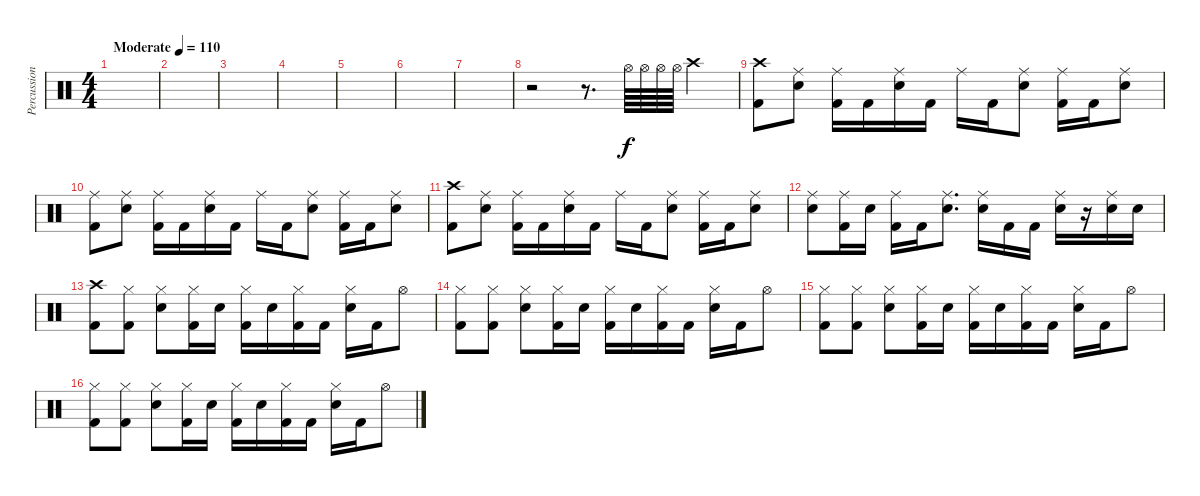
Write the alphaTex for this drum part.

\track ("Percussioni" "Percussion") {instrument percussion}
\staff {score}
\articulation defaults
\ts (4 4)
\tempo (110 "Moderate")
\clef neutral
\ks c
|
|
|
|
|
|
|
r.2 r.8{d} "Hi-Hat (open)".64 "Hi-Hat (open)".64 "Hi-Hat (open)".64 "Hi-Hat (open)".64 "Crash high (hit)".4 |
("Crash high (hit)" "Kick (hit) 2").8 ("Ride (middle)" "Snare (hit) 2").8 ("Ride (middle)" "Kick (hit) 2").16 "Kick (hit) 2".16 ("Ride (middle)" "Snare (hit) 2").16 "Kick (hit) 2".16 "Ride (middle)".16 "Kick (hit) 2".16 ("Ride (middle)" "Snare (hit) 2").8 ("Ride (middle)" "Kick (hit) 2").16 "Kick (hit) 2".16 ("Ride (middle)" "Snare (hit) 2").8 |
("Ride (middle)" "Kick (hit) 2").8 ("Ride (middle)" "Snare (hit) 2").8 ("Ride (middle)" "Kick (hit) 2").16 "Kick (hit) 2".16 ("Ride (middle)" "Snare (hit) 2").16 "Kick (hit) 2".16 "Ride (middle)".16 "Kick (hit) 2".16 ("Ride (middle)" "Snare (hit) 2").8 ("Ride (middle)" "Kick (hit) 2").16 "Kick (hit) 2".16 ("Ride (middle)" "Snare (hit) 2").8 |
("Crash high (hit)" "Kick (hit) 2").8 ("Ride (middle)" "Snare (hit) 2").8 ("Ride (middle)" "Kick (hit) 2").16 "Kick (hit) 2".16 ("Ride (middle)" "Snare (hit) 2").16 "Kick (hit) 2".16 "Ride (middle)".16 "Kick (hit) 2".16 ("Ride (middle)" "Snare (hit) 2").8 ("Ride (middle)" "Kick (hit) 2").16 "Kick (hit) 2".16 ("Ride (middle)" "Snare (hit) 2").8 |
("Ride (middle)" "Snare (hit) 2").8 ("Ride (middle)" "Kick (hit) 2").16 "Snare (hit) 2".16 ("Ride (middle)" "Kick (hit) 2").16 "Kick (hit) 2".16 ("Ride (middle)" "Snare (hit) 2").8{d} ("Ride (middle)" "Snare (hit) 2").16 "Kick (hit) 2".16 "Kick (hit) 2".16 ("Ride (middle)" "Snare (hit) 2").16 r.16 ("Ride (middle)" "Snare (hit) 2").16 "Snare (hit) 2".16 |
("Crash high (hit)" "Kick (hit) 2").8 ("Hi-Hat (closed)" "Kick (hit) 2").8 ("Hi-Hat (closed)" "Snare (hit) 2").8 ("Hi-Hat (closed)" "Kick (hit) 2").16 "Snare (hit) 2".16 ("Hi-Hat (closed)" "Kick (hit) 2").16 "Snare (hit) 2".16 ("Hi-Hat (closed)" "Kick (hit) 2").16 "Kick (hit) 2".16 ("Hi-Hat (closed)" "Snare (hit) 2").16 "Kick (hit) 2".16 "Hi-Hat (open)".8 |
("Hi-Hat (closed)" "Kick (hit) 2").8 ("Hi-Hat (closed)" "Kick (hit) 2").8 ("Hi-Hat (closed)" "Snare (hit) 2").8 ("Hi-Hat (closed)" "Kick (hit) 2").16 "Snare (hit) 2".16 ("Hi-Hat (closed)" "Kick (hit) 2").16 "Snare (hit) 2".16 ("Hi-Hat (closed)" "Kick (hit) 2").16 "Kick (hit) 2".16 ("Hi-Hat (closed)" "Snare (hit) 2").16 "Kick (hit) 2".16 "Hi-Hat (open)".8 |
("Hi-Hat (closed)" "Kick (hit) 2").8 ("Hi-Hat (closed)" "Kick (hit) 2").8 ("Hi-Hat (closed)" "Snare (hit) 2").8 ("Hi-Hat (closed)" "Kick (hit) 2").16 "Snare (hit) 2".16 ("Hi-Hat (closed)" "Kick (hit) 2").16 "Snare (hit) 2".16 ("Hi-Hat (closed)" "Kick (hit) 2").16 "Kick (hit) 2".16 ("Hi-Hat (closed)" "Snare (hit) 2").16 "Kick (hit) 2".16 "Hi-Hat (open)".8 |
("Hi-Hat (closed)" "Kick (hit) 2").8 ("Hi-Hat (closed)" "Kick (hit) 2").8 ("Hi-Hat (closed)" "Snare (hit) 2").8 ("Hi-Hat (closed)" "Kick (hit) 2").16 "Snare (hit) 2".16 ("Hi-Hat (closed)" "Kick (hit) 2").16 "Snare (hit) 2".16 ("Hi-Hat (closed)" "Kick (hit) 2").16 "Kick (hit) 2".16 ("Hi-Hat (closed)" "Snare (hit) 2").16 "Kick (hit) 2".16 "Hi-Hat (open)".8
